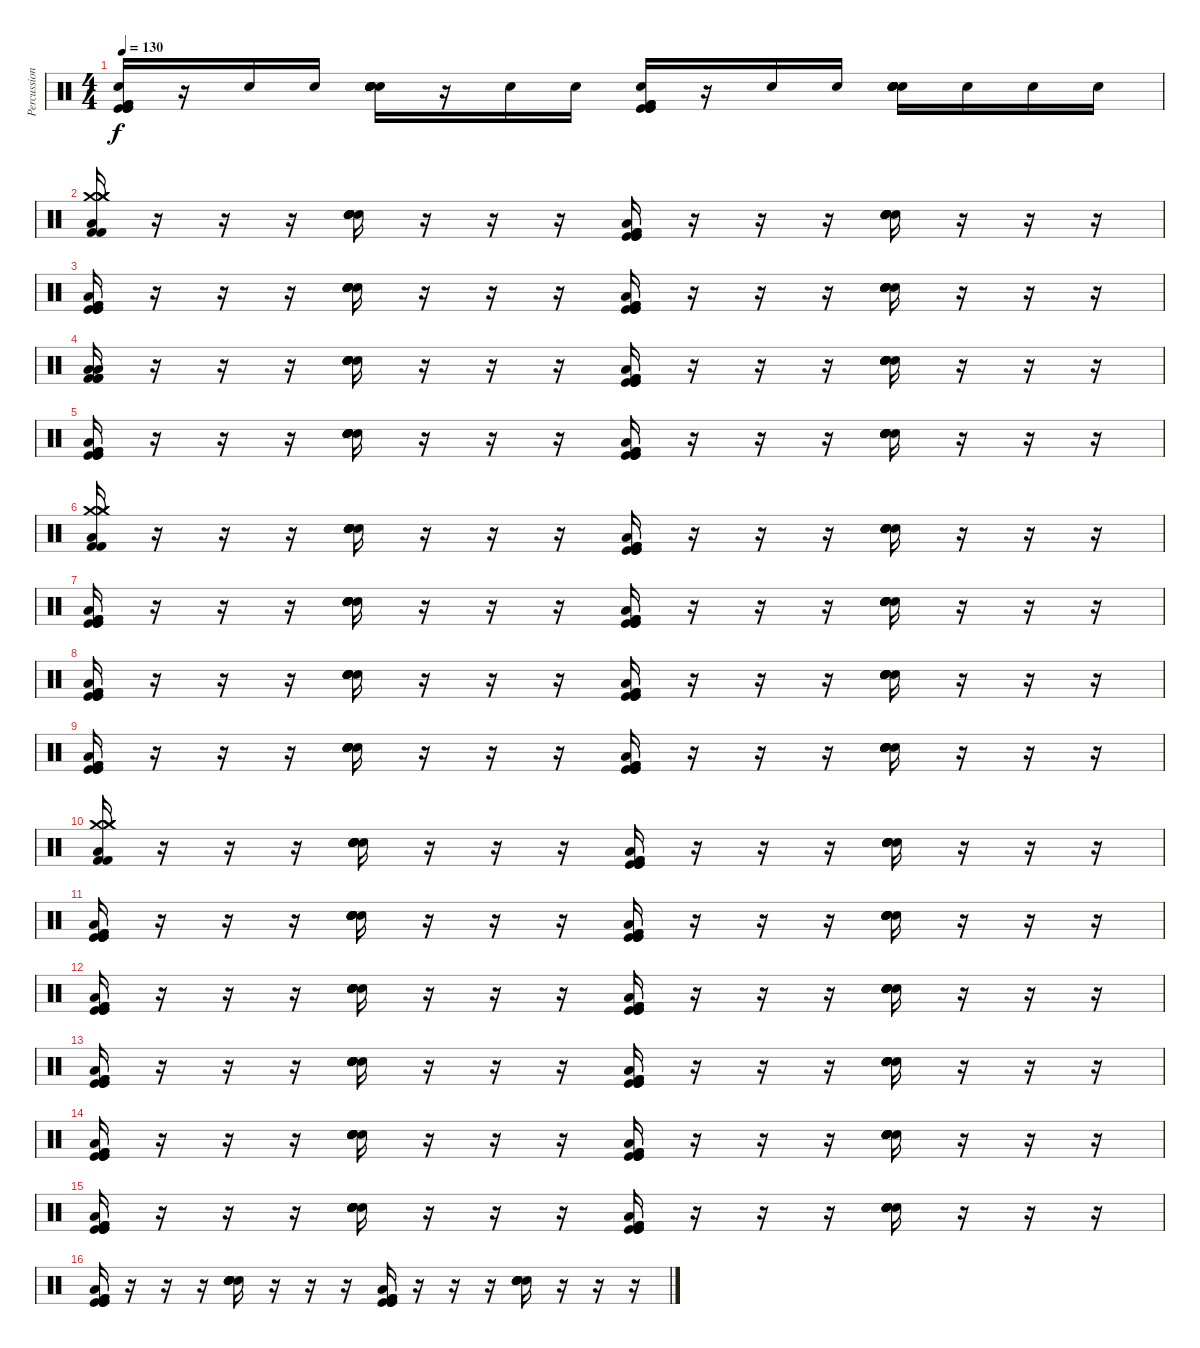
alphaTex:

\track ("Percussion" "Percussion") {instrument percussion}
\staff {score}
\articulation defaults
\ts (4 4)
\tempo 130
\clef neutral
\ks c
("Kick (hit)" "Kick (hit)" "Kick (hit)" "Kick (hit) 2" "Kick (hit) 2" "Electric Snare (hit)").16{dy f} r.16 "Electric Snare (hit)".16 "Electric Snare (hit)".16 ("Snare (hit) 2" "Snare (hit) 2" "Snare (hit) 2" "Electric Snare (hit)" "Electric Snare (hit)" "Electric Snare (hit)").16 r.16 "Electric Snare (hit)".16 "Electric Snare (hit)".16 ("Kick (hit)" "Kick (hit)" "Kick (hit)" "Kick (hit) 2" "Kick (hit) 2" "Electric Snare (hit)").16 r.16 "Electric Snare (hit)".16 "Electric Snare (hit)".16 ("Snare (hit) 2" "Snare (hit) 2" "Snare (hit) 2" "Electric Snare (hit)" "Electric Snare (hit)" "Electric Snare (hit)").16 "Electric Snare (hit)".16 "Electric Snare (hit)".16 "Electric Snare (hit)".16 |
("Crash medium (hit)" "Crash medium (hit)" "Crash medium (hit)" "Kick (hit) 2" "Kick (hit) 2" "Low Floor Tom (hit)").16 r.16 r.16 r.16 ("Snare (hit) 2" "Snare (hit) 2" "Snare (hit) 2" "Electric Snare (hit)" "Electric Snare (hit)" "Electric Snare (hit)").16 r.16 r.16 r.16 ("Kick (hit)" "Kick (hit)" "Kick (hit)" "Kick (hit) 2" "Kick (hit) 2" "Low Floor Tom (hit)").16 r.16 r.16 r.16 ("Snare (hit) 2" "Snare (hit) 2" "Snare (hit) 2" "Electric Snare (hit)" "Electric Snare (hit)" "Electric Snare (hit)").16 r.16 r.16 r.16 |
("Kick (hit)" "Kick (hit)" "Kick (hit)" "Kick (hit) 2" "Kick (hit) 2" "Low Floor Tom (hit)").16 r.16 r.16 r.16 ("Snare (hit) 2" "Snare (hit) 2" "Snare (hit) 2" "Electric Snare (hit)" "Electric Snare (hit)" "Electric Snare (hit)").16 r.16 r.16 r.16 ("Kick (hit)" "Kick (hit)" "Kick (hit)" "Kick (hit) 2" "Kick (hit) 2" "Low Floor Tom (hit)").16 r.16 r.16 r.16 ("Snare (hit) 2" "Snare (hit) 2" "Snare (hit) 2" "Electric Snare (hit)" "Electric Snare (hit)" "Electric Snare (hit)").16 r.16 r.16 r.16 |
("Kick (hit) 2" "Kick (hit) 2" "Low Floor Tom (hit)" "Kick (hit) 2" "Kick (hit) 2" "Low Floor Tom (hit)").16 r.16 r.16 r.16 ("Snare (hit) 2" "Snare (hit) 2" "Snare (hit) 2" "Electric Snare (hit)" "Electric Snare (hit)" "Electric Snare (hit)").16 r.16 r.16 r.16 ("Kick (hit)" "Kick (hit)" "Kick (hit)" "Kick (hit) 2" "Kick (hit) 2" "Low Floor Tom (hit)").16 r.16 r.16 r.16 ("Snare (hit) 2" "Snare (hit) 2" "Snare (hit) 2" "Electric Snare (hit)" "Electric Snare (hit)" "Electric Snare (hit)").16 r.16 r.16 r.16 |
("Kick (hit)" "Kick (hit)" "Kick (hit)" "Kick (hit) 2" "Kick (hit) 2" "Low Floor Tom (hit)").16 r.16 r.16 r.16 ("Snare (hit) 2" "Snare (hit) 2" "Snare (hit) 2" "Electric Snare (hit)" "Electric Snare (hit)" "Electric Snare (hit)").16 r.16 r.16 r.16 ("Kick (hit)" "Kick (hit)" "Kick (hit)" "Kick (hit) 2" "Kick (hit) 2" "Low Floor Tom (hit)").16 r.16 r.16 r.16 ("Snare (hit) 2" "Snare (hit) 2" "Snare (hit) 2" "Electric Snare (hit)" "Electric Snare (hit)" "Electric Snare (hit)").16 r.16 r.16 r.16 |
("Crash medium (hit)" "Crash medium (hit)" "Crash medium (hit)" "Kick (hit) 2" "Kick (hit) 2" "Low Floor Tom (hit)").16 r.16 r.16 r.16 ("Snare (hit) 2" "Snare (hit) 2" "Snare (hit) 2" "Electric Snare (hit)" "Electric Snare (hit)" "Electric Snare (hit)").16 r.16 r.16 r.16 ("Kick (hit)" "Kick (hit)" "Kick (hit)" "Kick (hit) 2" "Kick (hit) 2" "Low Floor Tom (hit)").16 r.16 r.16 r.16 ("Snare (hit) 2" "Snare (hit) 2" "Snare (hit) 2" "Electric Snare (hit)" "Electric Snare (hit)" "Electric Snare (hit)").16 r.16 r.16 r.16 |
("Kick (hit)" "Kick (hit)" "Kick (hit)" "Kick (hit) 2" "Kick (hit) 2" "Low Floor Tom (hit)").16 r.16 r.16 r.16 ("Snare (hit) 2" "Snare (hit) 2" "Snare (hit) 2" "Electric Snare (hit)" "Electric Snare (hit)" "Electric Snare (hit)").16 r.16 r.16 r.16 ("Kick (hit)" "Kick (hit)" "Kick (hit)" "Kick (hit) 2" "Kick (hit) 2" "Low Floor Tom (hit)").16 r.16 r.16 r.16 ("Snare (hit) 2" "Snare (hit) 2" "Snare (hit) 2" "Electric Snare (hit)" "Electric Snare (hit)" "Electric Snare (hit)").16 r.16 r.16 r.16 |
("Kick (hit)" "Kick (hit)" "Kick (hit)" "Kick (hit) 2" "Kick (hit) 2" "Low Floor Tom (hit)").16 r.16 r.16 r.16 ("Snare (hit) 2" "Snare (hit) 2" "Snare (hit) 2" "Electric Snare (hit)" "Electric Snare (hit)" "Electric Snare (hit)").16 r.16 r.16 r.16 ("Kick (hit)" "Kick (hit)" "Kick (hit)" "Kick (hit) 2" "Kick (hit) 2" "Low Floor Tom (hit)").16 r.16 r.16 r.16 ("Snare (hit) 2" "Snare (hit) 2" "Snare (hit) 2" "Electric Snare (hit)" "Electric Snare (hit)" "Electric Snare (hit)").16 r.16 r.16 r.16 |
("Kick (hit)" "Kick (hit)" "Kick (hit)" "Kick (hit) 2" "Kick (hit) 2" "Low Floor Tom (hit)").16 r.16 r.16 r.16 ("Snare (hit) 2" "Snare (hit) 2" "Snare (hit) 2" "Electric Snare (hit)" "Electric Snare (hit)" "Electric Snare (hit)").16 r.16 r.16 r.16 ("Kick (hit)" "Kick (hit)" "Kick (hit)" "Kick (hit) 2" "Kick (hit) 2" "Low Floor Tom (hit)").16 r.16 r.16 r.16 ("Snare (hit) 2" "Snare (hit) 2" "Snare (hit) 2" "Electric Snare (hit)" "Electric Snare (hit)" "Electric Snare (hit)").16 r.16 r.16 r.16 |
("Crash medium (hit)" "Crash medium (hit)" "Crash medium (hit)" "Kick (hit) 2" "Kick (hit) 2" "Low Floor Tom (hit)").16 r.16 r.16 r.16 ("Snare (hit) 2" "Snare (hit) 2" "Snare (hit) 2" "Electric Snare (hit)" "Electric Snare (hit)" "Electric Snare (hit)").16 r.16 r.16 r.16 ("Kick (hit)" "Kick (hit)" "Kick (hit)" "Kick (hit) 2" "Kick (hit) 2" "Low Floor Tom (hit)").16 r.16 r.16 r.16 ("Snare (hit) 2" "Snare (hit) 2" "Snare (hit) 2" "Electric Snare (hit)" "Electric Snare (hit)" "Electric Snare (hit)").16 r.16 r.16 r.16 |
("Kick (hit)" "Kick (hit)" "Kick (hit)" "Kick (hit) 2" "Kick (hit) 2" "Low Floor Tom (hit)").16 r.16 r.16 r.16 ("Snare (hit) 2" "Snare (hit) 2" "Snare (hit) 2" "Electric Snare (hit)" "Electric Snare (hit)" "Electric Snare (hit)").16 r.16 r.16 r.16 ("Kick (hit)" "Kick (hit)" "Kick (hit)" "Kick (hit) 2" "Kick (hit) 2" "Low Floor Tom (hit)").16 r.16 r.16 r.16 ("Snare (hit) 2" "Snare (hit) 2" "Snare (hit) 2" "Electric Snare (hit)" "Electric Snare (hit)" "Electric Snare (hit)").16 r.16 r.16 r.16 |
("Kick (hit)" "Kick (hit)" "Kick (hit)" "Kick (hit) 2" "Kick (hit) 2" "Low Floor Tom (hit)").16 r.16 r.16 r.16 ("Snare (hit) 2" "Snare (hit) 2" "Snare (hit) 2" "Electric Snare (hit)" "Electric Snare (hit)" "Electric Snare (hit)").16 r.16 r.16 r.16 ("Kick (hit)" "Kick (hit)" "Kick (hit)" "Kick (hit) 2" "Kick (hit) 2" "Low Floor Tom (hit)").16 r.16 r.16 r.16 ("Snare (hit) 2" "Snare (hit) 2" "Snare (hit) 2" "Electric Snare (hit)" "Electric Snare (hit)" "Electric Snare (hit)").16 r.16 r.16 r.16 |
("Kick (hit)" "Kick (hit)" "Kick (hit)" "Kick (hit) 2" "Kick (hit) 2" "Low Floor Tom (hit)").16 r.16 r.16 r.16 ("Snare (hit) 2" "Snare (hit) 2" "Snare (hit) 2" "Electric Snare (hit)" "Electric Snare (hit)" "Electric Snare (hit)").16 r.16 r.16 r.16 ("Kick (hit)" "Kick (hit)" "Kick (hit)" "Kick (hit) 2" "Kick (hit) 2" "Low Floor Tom (hit)").16 r.16 r.16 r.16 ("Snare (hit) 2" "Snare (hit) 2" "Snare (hit) 2" "Electric Snare (hit)" "Electric Snare (hit)" "Electric Snare (hit)").16 r.16 r.16 r.16 |
("Kick (hit)" "Kick (hit)" "Kick (hit)" "Kick (hit) 2" "Kick (hit) 2" "Low Floor Tom (hit)").16 r.16 r.16 r.16 ("Snare (hit) 2" "Snare (hit) 2" "Snare (hit) 2" "Electric Snare (hit)" "Electric Snare (hit)" "Electric Snare (hit)").16 r.16 r.16 r.16 ("Kick (hit)" "Kick (hit)" "Kick (hit)" "Kick (hit) 2" "Kick (hit) 2" "Low Floor Tom (hit)").16 r.16 r.16 r.16 ("Snare (hit) 2" "Snare (hit) 2" "Snare (hit) 2" "Electric Snare (hit)" "Electric Snare (hit)" "Electric Snare (hit)").16 r.16 r.16 r.16 |
("Kick (hit)" "Kick (hit)" "Kick (hit)" "Kick (hit) 2" "Kick (hit) 2" "Low Floor Tom (hit)").16 r.16 r.16 r.16 ("Snare (hit) 2" "Snare (hit) 2" "Snare (hit) 2" "Electric Snare (hit)" "Electric Snare (hit)" "Electric Snare (hit)").16 r.16 r.16 r.16 ("Kick (hit)" "Kick (hit)" "Kick (hit)" "Kick (hit) 2" "Kick (hit) 2" "Low Floor Tom (hit)").16 r.16 r.16 r.16 ("Snare (hit) 2" "Snare (hit) 2" "Snare (hit) 2" "Electric Snare (hit)" "Electric Snare (hit)" "Electric Snare (hit)").16 r.16 r.16 r.16 |
("Kick (hit)" "Kick (hit)" "Kick (hit)" "Kick (hit) 2" "Kick (hit) 2" "Low Floor Tom (hit)").16 r.16 r.16 r.16 ("Snare (hit) 2" "Snare (hit) 2" "Snare (hit) 2" "Electric Snare (hit)" "Electric Snare (hit)" "Electric Snare (hit)").16 r.16 r.16 r.16 ("Kick (hit)" "Kick (hit)" "Kick (hit)" "Kick (hit) 2" "Kick (hit) 2" "Low Floor Tom (hit)").16 r.16 r.16 r.16 ("Snare (hit) 2" "Snare (hit) 2" "Snare (hit) 2" "Electric Snare (hit)" "Electric Snare (hit)" "Electric Snare (hit)").16 r.16 r.16 r.16
